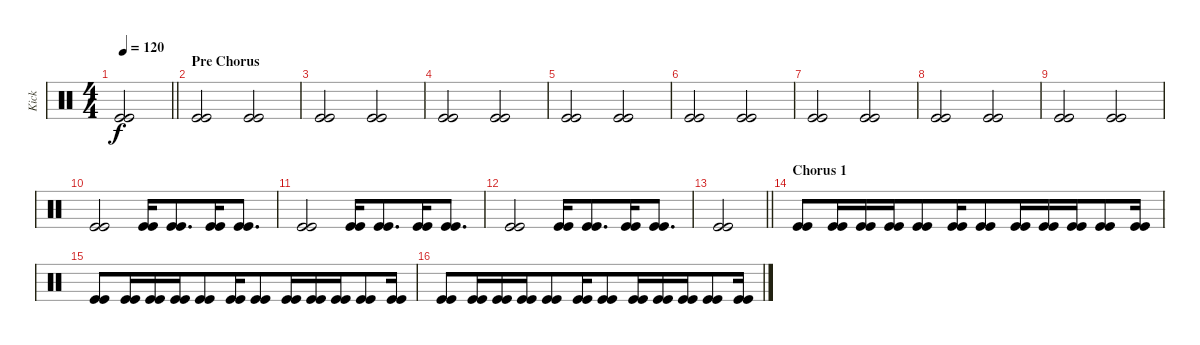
\track ("Kick" "Kick") {instrument percussion bank 2}
\staff {score}
\articulation defaults
\ts (4 4)
\tempo 120
\clef neutral
\barLineRight lightlight
\ks c
("Kick (hit)" "Kick (hit)").2{dy f} |
\section ("" "Pre Chorus")
("Kick (hit)" "Kick (hit)").2 ("Kick (hit)" "Kick (hit)").2 |
("Kick (hit)" "Kick (hit)").2 ("Kick (hit)" "Kick (hit)").2 |
("Kick (hit)" "Kick (hit)").2{beam merge} ("Kick (hit)" "Kick (hit)").2 |
("Kick (hit)" "Kick (hit)").2{beam merge} ("Kick (hit)" "Kick (hit)").2 |
("Kick (hit)" "Kick (hit)").2{beam merge} ("Kick (hit)" "Kick (hit)").2 |
("Kick (hit)" "Kick (hit)").2{beam merge} ("Kick (hit)" "Kick (hit)").2 |
("Kick (hit)" "Kick (hit)").2 ("Kick (hit)" "Kick (hit)").2 |
("Kick (hit)" "Kick (hit)").2 ("Kick (hit)" "Kick (hit)").2 |
("Kick (hit)" "Kick (hit)").2{beam merge} ("Kick (hit)" "Kick (hit)").16{beam merge} ("Kick (hit)" "Kick (hit)").8{d beam merge} ("Kick (hit)" "Kick (hit)").16 ("Kick (hit)" "Kick (hit)").8{d} |
("Kick (hit)" "Kick (hit)").2{beam merge} ("Kick (hit)" "Kick (hit)").16{beam merge} ("Kick (hit)" "Kick (hit)").8{d beam merge} ("Kick (hit)" "Kick (hit)").16 ("Kick (hit)" "Kick (hit)").8{d} |
("Kick (hit)" "Kick (hit)").2{beam merge} ("Kick (hit)" "Kick (hit)").16{beam merge} ("Kick (hit)" "Kick (hit)").8{d beam merge} ("Kick (hit)" "Kick (hit)").16 ("Kick (hit)" "Kick (hit)").8{d} |
\barLineRight lightlight
("Kick (hit)" "Kick (hit)").2 |
\section ("" "Chorus 1")
("Kick (hit)" "Kick (hit)").8{beam merge} ("Kick (hit)" "Kick (hit)").16{beam merge} ("Kick (hit)" "Kick (hit)").16{beam merge} ("Kick (hit)" "Kick (hit)").16{beam merge} ("Kick (hit)" "Kick (hit)").8{beam merge} ("Kick (hit)" "Kick (hit)").16{beam merge} ("Kick (hit)" "Kick (hit)").8{beam merge} ("Kick (hit)" "Kick (hit)").16{beam merge} ("Kick (hit)" "Kick (hit)").16{beam merge} ("Kick (hit)" "Kick (hit)").16{beam merge} ("Kick (hit)" "Kick (hit)").8{beam merge} ("Kick (hit)" "Kick (hit)").16 |
("Kick (hit)" "Kick (hit)").8{beam merge} ("Kick (hit)" "Kick (hit)").16{beam merge} ("Kick (hit)" "Kick (hit)").16{beam merge} ("Kick (hit)" "Kick (hit)").16{beam merge} ("Kick (hit)" "Kick (hit)").8{beam merge} ("Kick (hit)" "Kick (hit)").16{beam merge} ("Kick (hit)" "Kick (hit)").8{beam merge} ("Kick (hit)" "Kick (hit)").16{beam merge} ("Kick (hit)" "Kick (hit)").16{beam merge} ("Kick (hit)" "Kick (hit)").16{beam merge} ("Kick (hit)" "Kick (hit)").8{beam merge} ("Kick (hit)" "Kick (hit)").16 |
("Kick (hit)" "Kick (hit)").8{beam merge} ("Kick (hit)" "Kick (hit)").16{beam merge} ("Kick (hit)" "Kick (hit)").16{beam merge} ("Kick (hit)" "Kick (hit)").16{beam merge} ("Kick (hit)" "Kick (hit)").8{beam merge} ("Kick (hit)" "Kick (hit)").16{beam merge} ("Kick (hit)" "Kick (hit)").8{beam merge} ("Kick (hit)" "Kick (hit)").16{beam merge} ("Kick (hit)" "Kick (hit)").16{beam merge} ("Kick (hit)" "Kick (hit)").16{beam merge} ("Kick (hit)" "Kick (hit)").8{beam merge} ("Kick (hit)" "Kick (hit)").16
